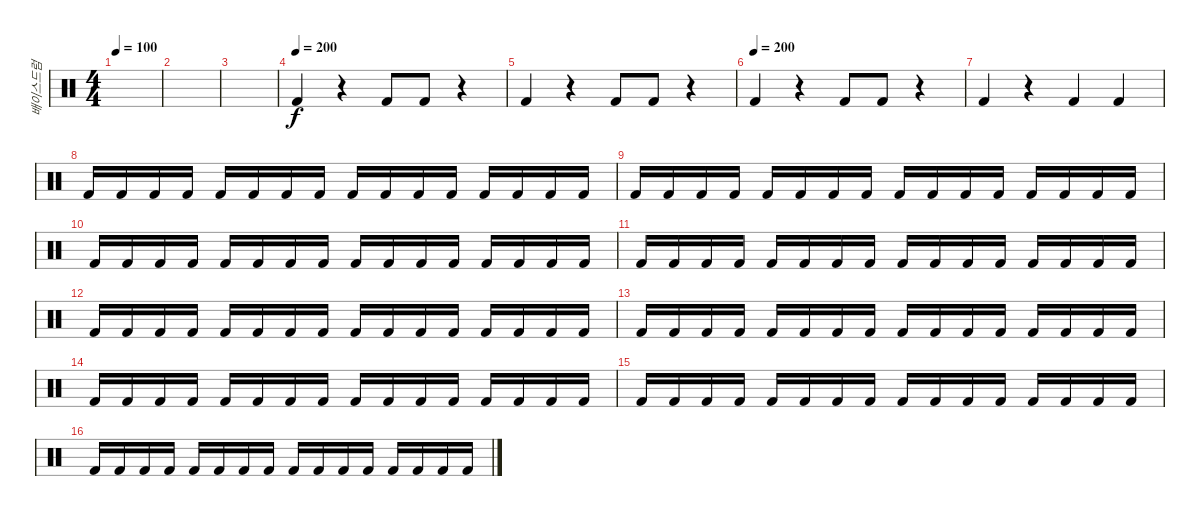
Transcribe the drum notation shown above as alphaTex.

\track ("배이스드럼" "배이스드럼") {instrument percussion}
\staff {score}
\articulation defaults
\ts (4 4)
\tempo 100
\clef neutral
\ks c
|
|
|
\tempo (200)
"Kick (hit) 2".4{dy f} r.4 "Kick (hit) 2".8 "Kick (hit) 2".8 r.4 |
"Kick (hit) 2".4 r.4 "Kick (hit) 2".8 "Kick (hit) 2".8 r.4 |
\tempo (200)
"Kick (hit) 2".4 r.4 "Kick (hit) 2".8 "Kick (hit) 2".8 r.4 |
"Kick (hit) 2".4 r.4 "Kick (hit) 2".4 "Kick (hit) 2".4 |
"Kick (hit) 2".16 "Kick (hit) 2".16 "Kick (hit) 2".16 "Kick (hit) 2".16 "Kick (hit) 2".16 "Kick (hit) 2".16 "Kick (hit) 2".16 "Kick (hit) 2".16 "Kick (hit) 2".16 "Kick (hit) 2".16 "Kick (hit) 2".16 "Kick (hit) 2".16 "Kick (hit) 2".16 "Kick (hit) 2".16 "Kick (hit) 2".16 "Kick (hit) 2".16 |
"Kick (hit) 2".16 "Kick (hit) 2".16 "Kick (hit) 2".16 "Kick (hit) 2".16 "Kick (hit) 2".16 "Kick (hit) 2".16 "Kick (hit) 2".16 "Kick (hit) 2".16 "Kick (hit) 2".16 "Kick (hit) 2".16 "Kick (hit) 2".16 "Kick (hit) 2".16 "Kick (hit) 2".16 "Kick (hit) 2".16 "Kick (hit) 2".16 "Kick (hit) 2".16 |
"Kick (hit) 2".16 "Kick (hit) 2".16 "Kick (hit) 2".16 "Kick (hit) 2".16 "Kick (hit) 2".16 "Kick (hit) 2".16 "Kick (hit) 2".16 "Kick (hit) 2".16 "Kick (hit) 2".16 "Kick (hit) 2".16 "Kick (hit) 2".16 "Kick (hit) 2".16 "Kick (hit) 2".16 "Kick (hit) 2".16 "Kick (hit) 2".16 "Kick (hit) 2".16 |
"Kick (hit) 2".16 "Kick (hit) 2".16 "Kick (hit) 2".16 "Kick (hit) 2".16 "Kick (hit) 2".16 "Kick (hit) 2".16 "Kick (hit) 2".16 "Kick (hit) 2".16 "Kick (hit) 2".16 "Kick (hit) 2".16 "Kick (hit) 2".16 "Kick (hit) 2".16 "Kick (hit) 2".16 "Kick (hit) 2".16 "Kick (hit) 2".16 "Kick (hit) 2".16 |
"Kick (hit) 2".16 "Kick (hit) 2".16 "Kick (hit) 2".16 "Kick (hit) 2".16 "Kick (hit) 2".16 "Kick (hit) 2".16 "Kick (hit) 2".16 "Kick (hit) 2".16 "Kick (hit) 2".16 "Kick (hit) 2".16 "Kick (hit) 2".16 "Kick (hit) 2".16 "Kick (hit) 2".16 "Kick (hit) 2".16 "Kick (hit) 2".16 "Kick (hit) 2".16 |
"Kick (hit) 2".16 "Kick (hit) 2".16 "Kick (hit) 2".16 "Kick (hit) 2".16 "Kick (hit) 2".16 "Kick (hit) 2".16 "Kick (hit) 2".16 "Kick (hit) 2".16 "Kick (hit) 2".16 "Kick (hit) 2".16 "Kick (hit) 2".16 "Kick (hit) 2".16 "Kick (hit) 2".16 "Kick (hit) 2".16 "Kick (hit) 2".16 "Kick (hit) 2".16 |
"Kick (hit) 2".16 "Kick (hit) 2".16 "Kick (hit) 2".16 "Kick (hit) 2".16 "Kick (hit) 2".16 "Kick (hit) 2".16 "Kick (hit) 2".16 "Kick (hit) 2".16 "Kick (hit) 2".16 "Kick (hit) 2".16 "Kick (hit) 2".16 "Kick (hit) 2".16 "Kick (hit) 2".16 "Kick (hit) 2".16 "Kick (hit) 2".16 "Kick (hit) 2".16 |
"Kick (hit) 2".16 "Kick (hit) 2".16 "Kick (hit) 2".16 "Kick (hit) 2".16 "Kick (hit) 2".16 "Kick (hit) 2".16 "Kick (hit) 2".16 "Kick (hit) 2".16 "Kick (hit) 2".16 "Kick (hit) 2".16 "Kick (hit) 2".16 "Kick (hit) 2".16 "Kick (hit) 2".16 "Kick (hit) 2".16 "Kick (hit) 2".16 "Kick (hit) 2".16 |
"Kick (hit) 2".16 "Kick (hit) 2".16 "Kick (hit) 2".16 "Kick (hit) 2".16 "Kick (hit) 2".16 "Kick (hit) 2".16 "Kick (hit) 2".16 "Kick (hit) 2".16 "Kick (hit) 2".16 "Kick (hit) 2".16 "Kick (hit) 2".16 "Kick (hit) 2".16 "Kick (hit) 2".16 "Kick (hit) 2".16 "Kick (hit) 2".16 "Kick (hit) 2".16
